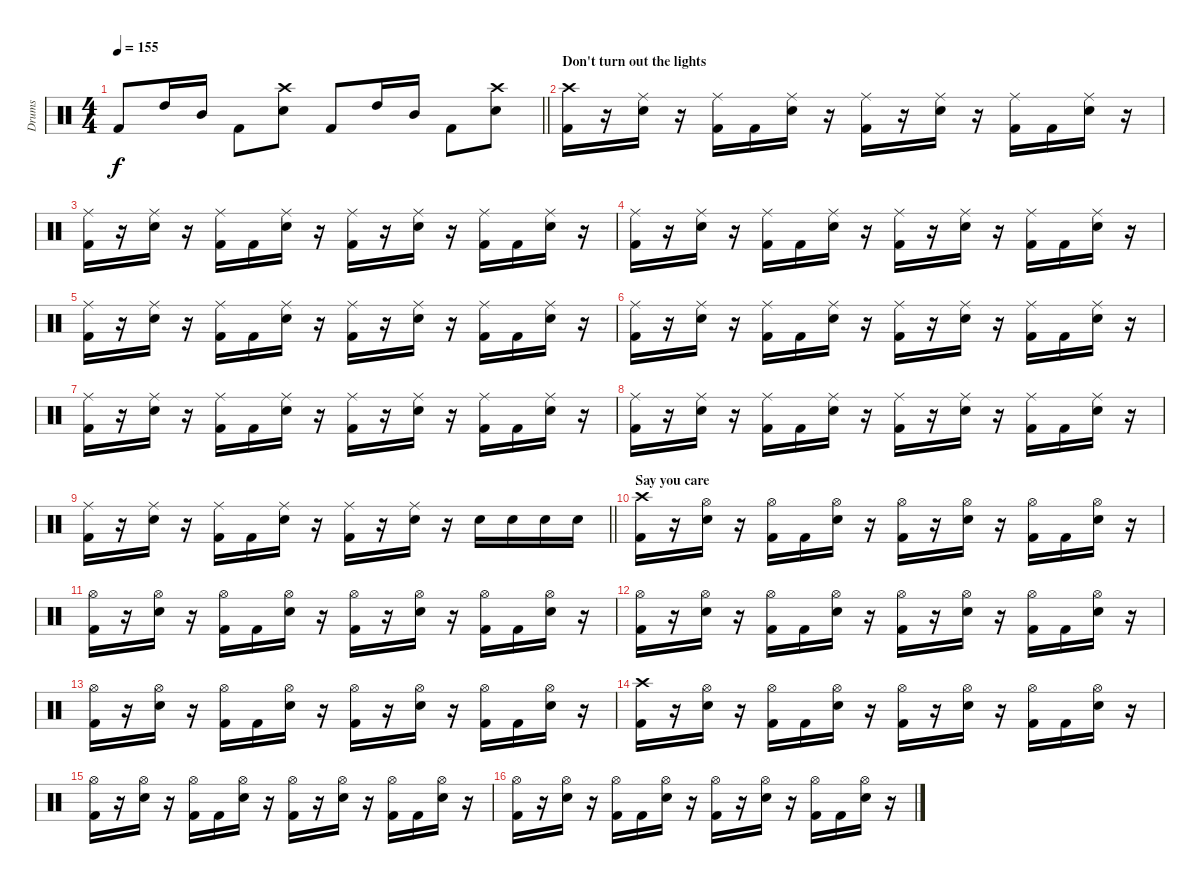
\track ("Drums" "Drums") {instrument percussion}
\staff {score}
\articulation defaults
\ts (4 4)
\tempo 155
\clef neutral
\barLineRight lightlight
\ks c "Kick (hit) 2".8{dy f} "High Tom (hit)".16 "Mid Tom (hit)".16 "Kick (hit) 2".8
("Crash high (hit)" "Electric Snare (hit)").8 "Kick (hit) 2".8 "High Tom (hit)".16 "Mid Tom (hit)".16 "Kick (hit) 2".8 ("Crash high (hit)" "Electric Snare (hit)").8 |
\section ("" "Don't turn out the lights")
("Crash high (hit)" "Kick (hit) 2").16 r.16 ("Ride (middle)" "Electric Snare (hit)").16 r.16 ("Ride (middle)" "Kick (hit) 2").16 "Kick (hit) 2".16 ("Ride (middle)" "Electric Snare (hit)").16 r.16 ("Ride (middle)" "Kick (hit) 2").16 r.16 ("Ride (middle)" "Electric Snare (hit)").16 r.16 ("Ride (middle)" "Kick (hit) 2").16 "Kick (hit) 2".16 ("Ride (middle)" "Electric Snare (hit)").16 r.16 |
("Ride (middle)" "Kick (hit) 2").16 r.16 ("Ride (middle)" "Electric Snare (hit)").16 r.16 ("Ride (middle)" "Kick (hit) 2").16 "Kick (hit) 2".16 ("Ride (middle)" "Electric Snare (hit)").16 r.16 ("Ride (middle)" "Kick (hit) 2").16 r.16 ("Ride (middle)" "Electric Snare (hit)").16 r.16 ("Ride (middle)" "Kick (hit) 2").16 "Kick (hit) 2".16 ("Ride (middle)" "Electric Snare (hit)").16 r.16 |
("Ride (middle)" "Kick (hit) 2").16 r.16 ("Ride (middle)" "Electric Snare (hit)").16 r.16 ("Ride (middle)" "Kick (hit) 2").16 "Kick (hit) 2".16 ("Ride (middle)" "Electric Snare (hit)").16 r.16 ("Ride (middle)" "Kick (hit) 2").16 r.16 ("Ride (middle)" "Electric Snare (hit)").16 r.16 ("Ride (middle)" "Kick (hit) 2").16 "Kick (hit) 2".16 ("Ride (middle)" "Electric Snare (hit)").16 r.16 |
("Ride (middle)" "Kick (hit) 2").16 r.16 ("Ride (middle)" "Electric Snare (hit)").16 r.16 ("Ride (middle)" "Kick (hit) 2").16 "Kick (hit) 2".16 ("Ride (middle)" "Electric Snare (hit)").16 r.16 ("Ride (middle)" "Kick (hit) 2").16 r.16 ("Ride (middle)" "Electric Snare (hit)").16 r.16 ("Ride (middle)" "Kick (hit) 2").16 "Kick (hit) 2".16 ("Ride (middle)" "Electric Snare (hit)").16 r.16 |
("Ride (middle)" "Kick (hit) 2").16 r.16 ("Ride (middle)" "Electric Snare (hit)").16 r.16 ("Ride (middle)" "Kick (hit) 2").16 "Kick (hit) 2".16 ("Ride (middle)" "Electric Snare (hit)").16 r.16 ("Ride (middle)" "Kick (hit) 2").16 r.16 ("Ride (middle)" "Electric Snare (hit)").16 r.16 ("Ride (middle)" "Kick (hit) 2").16 "Kick (hit) 2".16 ("Ride (middle)" "Electric Snare (hit)").16 r.16 |
("Ride (middle)" "Kick (hit) 2").16 r.16 ("Ride (middle)" "Electric Snare (hit)").16 r.16 ("Ride (middle)" "Kick (hit) 2").16 "Kick (hit) 2".16 ("Ride (middle)" "Electric Snare (hit)").16 r.16 ("Ride (middle)" "Kick (hit) 2").16 r.16 ("Ride (middle)" "Electric Snare (hit)").16 r.16 ("Ride (middle)" "Kick (hit) 2").16 "Kick (hit) 2".16 ("Ride (middle)" "Electric Snare (hit)").16 r.16 |
("Ride (middle)" "Kick (hit) 2").16 r.16 ("Ride (middle)" "Electric Snare (hit)").16 r.16 ("Ride (middle)" "Kick (hit) 2").16 "Kick (hit) 2".16 ("Ride (middle)" "Electric Snare (hit)").16 r.16 ("Ride (middle)" "Kick (hit) 2").16 r.16 ("Ride (middle)" "Electric Snare (hit)").16 r.16 ("Ride (middle)" "Kick (hit) 2").16 "Kick (hit) 2".16 ("Ride (middle)" "Electric Snare (hit)").16 r.16 |
\barLineRight lightlight
("Ride (middle)" "Kick (hit) 2").16 r.16 ("Ride (middle)" "Electric Snare (hit)").16 r.16 ("Ride (middle)" "Kick (hit) 2").16 "Kick (hit) 2".16 ("Ride (middle)" "Electric Snare (hit)").16 r.16 ("Ride (middle)" "Kick (hit) 2").16 r.16 ("Ride (middle)" "Electric Snare (hit)").16 r.16 "Electric Snare (hit)".16 "Electric Snare (hit)".16 "Electric Snare (hit)".16 "Electric Snare (hit)".16 |
\section ("" "Say you care")
("Crash high (hit)" "Kick (hit) 2").16 r.16 ("Hi-Hat (open)" "Electric Snare (hit)").16 r.16 ("Hi-Hat (open)" "Kick (hit) 2").16 "Kick (hit) 2".16 ("Hi-Hat (open)" "Electric Snare (hit)").16 r.16 ("Hi-Hat (open)" "Kick (hit) 2").16 r.16 ("Hi-Hat (open)" "Electric Snare (hit)").16 r.16 ("Hi-Hat (open)" "Kick (hit) 2").16 "Kick (hit) 2".16 ("Hi-Hat (open)" "Electric Snare (hit)").16 r.16 |
("Hi-Hat (open)" "Kick (hit) 2").16 r.16 ("Hi-Hat (open)" "Electric Snare (hit)").16 r.16 ("Hi-Hat (open)" "Kick (hit) 2").16 "Kick (hit) 2".16 ("Hi-Hat (open)" "Electric Snare (hit)").16 r.16 ("Hi-Hat (open)" "Kick (hit) 2").16 r.16 ("Hi-Hat (open)" "Electric Snare (hit)").16 r.16 ("Hi-Hat (open)" "Kick (hit) 2").16 "Kick (hit) 2".16 ("Hi-Hat (open)" "Electric Snare (hit)").16 r.16 |
("Hi-Hat (open)" "Kick (hit) 2").16 r.16 ("Hi-Hat (open)" "Electric Snare (hit)").16 r.16 ("Hi-Hat (open)" "Kick (hit) 2").16 "Kick (hit) 2".16 ("Hi-Hat (open)" "Electric Snare (hit)").16 r.16 ("Hi-Hat (open)" "Kick (hit) 2").16 r.16 ("Hi-Hat (open)" "Electric Snare (hit)").16 r.16 ("Hi-Hat (open)" "Kick (hit) 2").16 "Kick (hit) 2".16 ("Hi-Hat (open)" "Electric Snare (hit)").16 r.16 |
("Hi-Hat (open)" "Kick (hit) 2").16 r.16 ("Hi-Hat (open)" "Electric Snare (hit)").16 r.16 ("Hi-Hat (open)" "Kick (hit) 2").16 "Kick (hit) 2".16 ("Hi-Hat (open)" "Electric Snare (hit)").16 r.16 ("Hi-Hat (open)" "Kick (hit) 2").16 r.16 ("Hi-Hat (open)" "Electric Snare (hit)").16 r.16 ("Hi-Hat (open)" "Kick (hit) 2").16 "Kick (hit) 2".16 ("Hi-Hat (open)" "Electric Snare (hit)").16 r.16 |
("Crash high (hit)" "Kick (hit) 2").16 r.16 ("Hi-Hat (open)" "Electric Snare (hit)").16 r.16 ("Hi-Hat (open)" "Kick (hit) 2").16 "Kick (hit) 2".16 ("Hi-Hat (open)" "Electric Snare (hit)").16 r.16 ("Hi-Hat (open)" "Kick (hit) 2").16 r.16 ("Hi-Hat (open)" "Electric Snare (hit)").16 r.16 ("Hi-Hat (open)" "Kick (hit) 2").16 "Kick (hit) 2".16 ("Hi-Hat (open)" "Electric Snare (hit)").16 r.16 |
("Hi-Hat (open)" "Kick (hit) 2").16 r.16 ("Hi-Hat (open)" "Electric Snare (hit)").16 r.16 ("Hi-Hat (open)" "Kick (hit) 2").16 "Kick (hit) 2".16 ("Hi-Hat (open)" "Electric Snare (hit)").16 r.16 ("Hi-Hat (open)" "Kick (hit) 2").16 r.16 ("Hi-Hat (open)" "Electric Snare (hit)").16 r.16 ("Hi-Hat (open)" "Kick (hit) 2").16 "Kick (hit) 2".16 ("Hi-Hat (open)" "Electric Snare (hit)").16 r.16 |
("Hi-Hat (open)" "Kick (hit) 2").16 r.16 ("Hi-Hat (open)" "Electric Snare (hit)").16 r.16 ("Hi-Hat (open)" "Kick (hit) 2").16 "Kick (hit) 2".16 ("Hi-Hat (open)" "Electric Snare (hit)").16 r.16 ("Hi-Hat (open)" "Kick (hit) 2").16 r.16 ("Hi-Hat (open)" "Electric Snare (hit)").16 r.16 ("Hi-Hat (open)" "Kick (hit) 2").16 "Kick (hit) 2".16 ("Hi-Hat (open)" "Electric Snare (hit)").16 r.16
